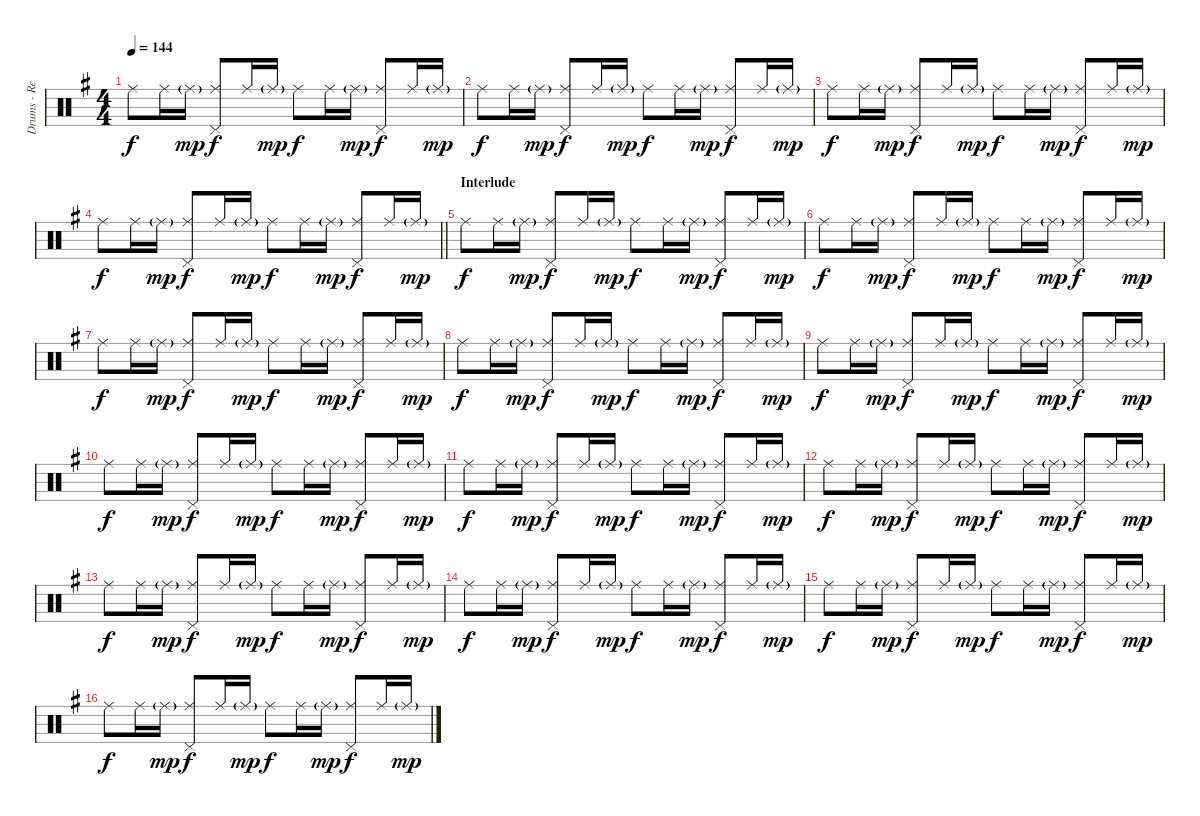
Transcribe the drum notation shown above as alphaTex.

\track ("Drums - Reni" "Drums - Re") {instrument percussion}
\staff {score}
\articulation defaults
\ts (4 4)
\tempo 144
\clef neutral
\ks g "Ride (middle)".8{dy f} "Ride (middle)".16 "Ride (middle)"{g}.16{dy mp}
("Ride (middle)" "Pedal Hi-Hat (hit)").8{dy f} "Ride (middle)".16 "Ride (middle)"{g}.16{dy mp} "Ride (middle)".8{dy f} "Ride (middle)".16 "Ride (middle)"{g}.16{dy mp} ("Ride (middle)" "Pedal Hi-Hat (hit)").8{dy f} "Ride (middle)".16 "Ride (middle)"{g}.16{dy mp} |
"Ride (middle)".8{dy f} "Ride (middle)".16 "Ride (middle)"{g}.16{dy mp} ("Ride (middle)" "Pedal Hi-Hat (hit)").8{dy f} "Ride (middle)".16 "Ride (middle)"{g}.16{dy mp} "Ride (middle)".8{dy f} "Ride (middle)".16 "Ride (middle)"{g}.16{dy mp} ("Ride (middle)" "Pedal Hi-Hat (hit)").8{dy f} "Ride (middle)".16 "Ride (middle)"{g}.16{dy mp} |
"Ride (middle)".8{dy f} "Ride (middle)".16 "Ride (middle)"{g}.16{dy mp} ("Ride (middle)" "Pedal Hi-Hat (hit)").8{dy f} "Ride (middle)".16 "Ride (middle)"{g}.16{dy mp} "Ride (middle)".8{dy f} "Ride (middle)".16 "Ride (middle)"{g}.16{dy mp} ("Ride (middle)" "Pedal Hi-Hat (hit)").8{dy f} "Ride (middle)".16 "Ride (middle)"{g}.16{dy mp} |
\barLineRight lightlight "Ride (middle)".8{dy f} "Ride (middle)".16 "Ride (middle)"{g}.16{dy mp}
("Ride (middle)" "Pedal Hi-Hat (hit)").8{dy f} "Ride (middle)".16 "Ride (middle)"{g}.16{dy mp} "Ride (middle)".8{dy f} "Ride (middle)".16 "Ride (middle)"{g}.16{dy mp} ("Ride (middle)" "Pedal Hi-Hat (hit)").8{dy f} "Ride (middle)".16 "Ride (middle)"{g}.16{dy mp} |
\section ("" "Interlude")
"Ride (middle)".8{dy f} "Ride (middle)".16 "Ride (middle)"{g}.16{dy mp} ("Ride (middle)" "Pedal Hi-Hat (hit)").8{dy f} "Ride (middle)".16 "Ride (middle)"{g}.16{dy mp} "Ride (middle)".8{dy f} "Ride (middle)".16 "Ride (middle)"{g}.16{dy mp} ("Ride (middle)" "Pedal Hi-Hat (hit)").8{dy f} "Ride (middle)".16 "Ride (middle)"{g}.16{dy mp} |
"Ride (middle)".8{dy f} "Ride (middle)".16 "Ride (middle)"{g}.16{dy mp} ("Ride (middle)" "Pedal Hi-Hat (hit)").8{dy f} "Ride (middle)".16 "Ride (middle)"{g}.16{dy mp} "Ride (middle)".8{dy f} "Ride (middle)".16 "Ride (middle)"{g}.16{dy mp} ("Ride (middle)" "Pedal Hi-Hat (hit)").8{dy f} "Ride (middle)".16 "Ride (middle)"{g}.16{dy mp} |
"Ride (middle)".8{dy f} "Ride (middle)".16 "Ride (middle)"{g}.16{dy mp} ("Ride (middle)" "Pedal Hi-Hat (hit)").8{dy f} "Ride (middle)".16 "Ride (middle)"{g}.16{dy mp} "Ride (middle)".8{dy f} "Ride (middle)".16 "Ride (middle)"{g}.16{dy mp} ("Ride (middle)" "Pedal Hi-Hat (hit)").8{dy f} "Ride (middle)".16 "Ride (middle)"{g}.16{dy mp} |
"Ride (middle)".8{dy f} "Ride (middle)".16 "Ride (middle)"{g}.16{dy mp} ("Ride (middle)" "Pedal Hi-Hat (hit)").8{dy f} "Ride (middle)".16 "Ride (middle)"{g}.16{dy mp} "Ride (middle)".8{dy f} "Ride (middle)".16 "Ride (middle)"{g}.16{dy mp} ("Ride (middle)" "Pedal Hi-Hat (hit)").8{dy f} "Ride (middle)".16 "Ride (middle)"{g}.16{dy mp} |
"Ride (middle)".8{dy f} "Ride (middle)".16 "Ride (middle)"{g}.16{dy mp} ("Ride (middle)" "Pedal Hi-Hat (hit)").8{dy f} "Ride (middle)".16 "Ride (middle)"{g}.16{dy mp} "Ride (middle)".8{dy f} "Ride (middle)".16 "Ride (middle)"{g}.16{dy mp} ("Ride (middle)" "Pedal Hi-Hat (hit)").8{dy f} "Ride (middle)".16 "Ride (middle)"{g}.16{dy mp} |
"Ride (middle)".8{dy f} "Ride (middle)".16 "Ride (middle)"{g}.16{dy mp} ("Ride (middle)" "Pedal Hi-Hat (hit)").8{dy f} "Ride (middle)".16 "Ride (middle)"{g}.16{dy mp} "Ride (middle)".8{dy f} "Ride (middle)".16 "Ride (middle)"{g}.16{dy mp} ("Ride (middle)" "Pedal Hi-Hat (hit)").8{dy f} "Ride (middle)".16 "Ride (middle)"{g}.16{dy mp} |
"Ride (middle)".8{dy f} "Ride (middle)".16 "Ride (middle)"{g}.16{dy mp} ("Ride (middle)" "Pedal Hi-Hat (hit)").8{dy f} "Ride (middle)".16 "Ride (middle)"{g}.16{dy mp} "Ride (middle)".8{dy f} "Ride (middle)".16 "Ride (middle)"{g}.16{dy mp} ("Ride (middle)" "Pedal Hi-Hat (hit)").8{dy f} "Ride (middle)".16 "Ride (middle)"{g}.16{dy mp} |
"Ride (middle)".8{dy f} "Ride (middle)".16 "Ride (middle)"{g}.16{dy mp} ("Ride (middle)" "Pedal Hi-Hat (hit)").8{dy f} "Ride (middle)".16 "Ride (middle)"{g}.16{dy mp} "Ride (middle)".8{dy f} "Ride (middle)".16 "Ride (middle)"{g}.16{dy mp} ("Ride (middle)" "Pedal Hi-Hat (hit)").8{dy f} "Ride (middle)".16 "Ride (middle)"{g}.16{dy mp} |
"Ride (middle)".8{dy f} "Ride (middle)".16 "Ride (middle)"{g}.16{dy mp} ("Ride (middle)" "Pedal Hi-Hat (hit)").8{dy f} "Ride (middle)".16 "Ride (middle)"{g}.16{dy mp} "Ride (middle)".8{dy f} "Ride (middle)".16 "Ride (middle)"{g}.16{dy mp} ("Ride (middle)" "Pedal Hi-Hat (hit)").8{dy f} "Ride (middle)".16 "Ride (middle)"{g}.16{dy mp} |
"Ride (middle)".8{dy f} "Ride (middle)".16 "Ride (middle)"{g}.16{dy mp} ("Ride (middle)" "Pedal Hi-Hat (hit)").8{dy f} "Ride (middle)".16 "Ride (middle)"{g}.16{dy mp} "Ride (middle)".8{dy f} "Ride (middle)".16 "Ride (middle)"{g}.16{dy mp} ("Ride (middle)" "Pedal Hi-Hat (hit)").8{dy f} "Ride (middle)".16 "Ride (middle)"{g}.16{dy mp} |
"Ride (middle)".8{dy f} "Ride (middle)".16 "Ride (middle)"{g}.16{dy mp} ("Ride (middle)" "Pedal Hi-Hat (hit)").8{dy f} "Ride (middle)".16 "Ride (middle)"{g}.16{dy mp} "Ride (middle)".8{dy f} "Ride (middle)".16 "Ride (middle)"{g}.16{dy mp} ("Ride (middle)" "Pedal Hi-Hat (hit)").8{dy f} "Ride (middle)".16 "Ride (middle)"{g}.16{dy mp} |
"Ride (middle)".8{dy f} "Ride (middle)".16 "Ride (middle)"{g}.16{dy mp} ("Ride (middle)" "Pedal Hi-Hat (hit)").8{dy f} "Ride (middle)".16 "Ride (middle)"{g}.16{dy mp} "Ride (middle)".8{dy f} "Ride (middle)".16 "Ride (middle)"{g}.16{dy mp} ("Ride (middle)" "Pedal Hi-Hat (hit)").8{dy f} "Ride (middle)".16 "Ride (middle)"{g}.16{dy mp}
